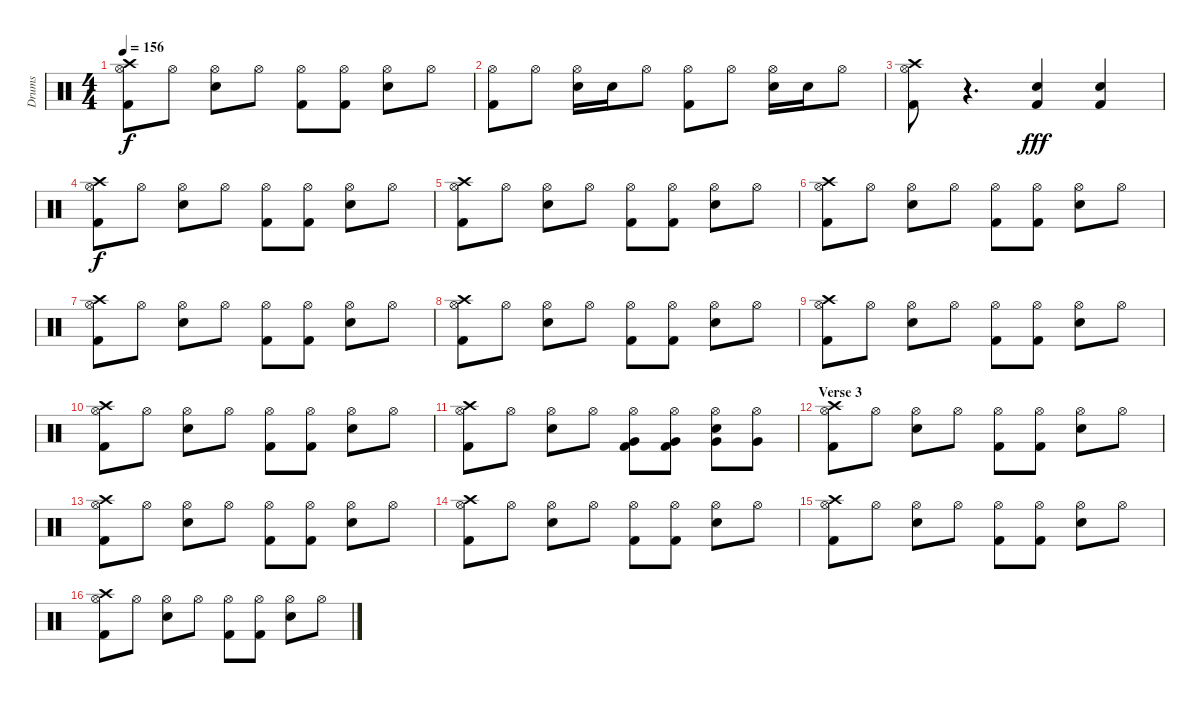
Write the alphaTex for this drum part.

\track ("Drums" "Drums") {instrument percussion}
\staff {score}
\articulation defaults
\ts (4 4)
\tempo 156
\clef neutral
\ks c
("Crash high (hit)" "Hi-Hat (open)" "Kick (hit) 2").8{dy f} "Hi-Hat (open)".8 ("Hi-Hat (open)" "Snare (hit) 2").8 "Hi-Hat (open)".8 ("Hi-Hat (open)" "Kick (hit) 2").8 ("Hi-Hat (open)" "Kick (hit) 2").8 ("Hi-Hat (open)" "Snare (hit) 2").8 "Hi-Hat (open)".8 |
("Hi-Hat (open)" "Kick (hit) 2").8 "Hi-Hat (open)".8 ("Hi-Hat (open)" "Snare (hit) 2").16 "Snare (hit) 2".16 "Hi-Hat (open)".8 ("Hi-Hat (open)" "Kick (hit) 2").8 "Hi-Hat (open)".8 ("Hi-Hat (open)" "Snare (hit) 2").16 "Snare (hit) 2".16 "Hi-Hat (open)".8 |
("Crash high (hit)" "Hi-Hat (open)" "Kick (hit) 2").8 r.4{d} ("Snare (hit) 2" "Kick (hit) 2").4{dy fff} ("Snare (hit) 2" "Kick (hit) 2").4 |
("Crash high (hit)" "Hi-Hat (open)" "Kick (hit) 2").8{dy f} "Hi-Hat (open)".8 ("Hi-Hat (open)" "Snare (hit) 2").8 "Hi-Hat (open)".8 ("Hi-Hat (open)" "Kick (hit) 2").8 ("Hi-Hat (open)" "Kick (hit) 2").8 ("Hi-Hat (open)" "Snare (hit) 2").8 "Hi-Hat (open)".8 |
("Crash high (hit)" "Hi-Hat (open)" "Kick (hit) 2").8 "Hi-Hat (open)".8 ("Hi-Hat (open)" "Snare (hit) 2").8 "Hi-Hat (open)".8 ("Hi-Hat (open)" "Kick (hit) 2").8 ("Hi-Hat (open)" "Kick (hit) 2").8 ("Hi-Hat (open)" "Snare (hit) 2").8 "Hi-Hat (open)".8 |
("Crash high (hit)" "Hi-Hat (open)" "Kick (hit) 2").8 "Hi-Hat (open)".8 ("Hi-Hat (open)" "Snare (hit) 2").8 "Hi-Hat (open)".8 ("Hi-Hat (open)" "Kick (hit) 2").8 ("Hi-Hat (open)" "Kick (hit) 2").8 ("Hi-Hat (open)" "Snare (hit) 2").8 "Hi-Hat (open)".8 |
("Crash high (hit)" "Hi-Hat (open)" "Kick (hit) 2").8 "Hi-Hat (open)".8 ("Hi-Hat (open)" "Snare (hit) 2").8 "Hi-Hat (open)".8 ("Hi-Hat (open)" "Kick (hit) 2").8 ("Hi-Hat (open)" "Kick (hit) 2").8 ("Hi-Hat (open)" "Snare (hit) 2").8 "Hi-Hat (open)".8 |
("Crash high (hit)" "Hi-Hat (open)" "Kick (hit) 2").8 "Hi-Hat (open)".8 ("Hi-Hat (open)" "Snare (hit) 2").8 "Hi-Hat (open)".8 ("Hi-Hat (open)" "Kick (hit) 2").8 ("Hi-Hat (open)" "Kick (hit) 2").8 ("Hi-Hat (open)" "Snare (hit) 2").8 "Hi-Hat (open)".8 |
("Crash high (hit)" "Hi-Hat (open)" "Kick (hit) 2").8 "Hi-Hat (open)".8 ("Hi-Hat (open)" "Snare (hit) 2").8 "Hi-Hat (open)".8 ("Hi-Hat (open)" "Kick (hit) 2").8 ("Hi-Hat (open)" "Kick (hit) 2").8 ("Hi-Hat (open)" "Snare (hit) 2").8 "Hi-Hat (open)".8 |
("Crash high (hit)" "Hi-Hat (open)" "Kick (hit) 2").8 "Hi-Hat (open)".8 ("Hi-Hat (open)" "Snare (hit) 2").8 "Hi-Hat (open)".8 ("Hi-Hat (open)" "Kick (hit) 2").8 ("Hi-Hat (open)" "Kick (hit) 2").8 ("Hi-Hat (open)" "Snare (hit) 2").8 "Hi-Hat (open)".8 |
("Crash high (hit)" "Hi-Hat (open)" "Kick (hit) 2").8 "Hi-Hat (open)".8 ("Hi-Hat (open)" "Snare (hit) 2").8 "Hi-Hat (open)".8 ("Hi-Hat (open)" "Very Low Tom (hit)" "Kick (hit) 2").8 ("Hi-Hat (open)" "Very Low Tom (hit)" "Kick (hit) 2").8 ("Hi-Hat (open)" "Snare (hit) 2" "Very Low Tom (hit)").8 ("Hi-Hat (open)" "Very Low Tom (hit)").8 |
\section ("" "Verse 3")
("Crash high (hit)" "Hi-Hat (open)" "Kick (hit) 2").8 "Hi-Hat (open)".8 ("Hi-Hat (open)" "Snare (hit) 2").8 "Hi-Hat (open)".8 ("Hi-Hat (open)" "Kick (hit) 2").8 ("Hi-Hat (open)" "Kick (hit) 2").8 ("Hi-Hat (open)" "Snare (hit) 2").8 "Hi-Hat (open)".8 |
("Crash high (hit)" "Hi-Hat (open)" "Kick (hit) 2").8 "Hi-Hat (open)".8 ("Hi-Hat (open)" "Snare (hit) 2").8 "Hi-Hat (open)".8 ("Hi-Hat (open)" "Kick (hit) 2").8 ("Hi-Hat (open)" "Kick (hit) 2").8 ("Hi-Hat (open)" "Snare (hit) 2").8 "Hi-Hat (open)".8 |
("Crash high (hit)" "Hi-Hat (open)" "Kick (hit) 2").8 "Hi-Hat (open)".8 ("Hi-Hat (open)" "Snare (hit) 2").8 "Hi-Hat (open)".8 ("Hi-Hat (open)" "Kick (hit) 2").8 ("Hi-Hat (open)" "Kick (hit) 2").8 ("Hi-Hat (open)" "Snare (hit) 2").8 "Hi-Hat (open)".8 |
("Crash high (hit)" "Hi-Hat (open)" "Kick (hit) 2").8 "Hi-Hat (open)".8 ("Hi-Hat (open)" "Snare (hit) 2").8 "Hi-Hat (open)".8 ("Hi-Hat (open)" "Kick (hit) 2").8 ("Hi-Hat (open)" "Kick (hit) 2").8 ("Hi-Hat (open)" "Snare (hit) 2").8 "Hi-Hat (open)".8 |
("Crash high (hit)" "Hi-Hat (open)" "Kick (hit) 2").8 "Hi-Hat (open)".8 ("Hi-Hat (open)" "Snare (hit) 2").8 "Hi-Hat (open)".8 ("Hi-Hat (open)" "Kick (hit) 2").8 ("Hi-Hat (open)" "Kick (hit) 2").8 ("Hi-Hat (open)" "Snare (hit) 2").8 "Hi-Hat (open)".8
